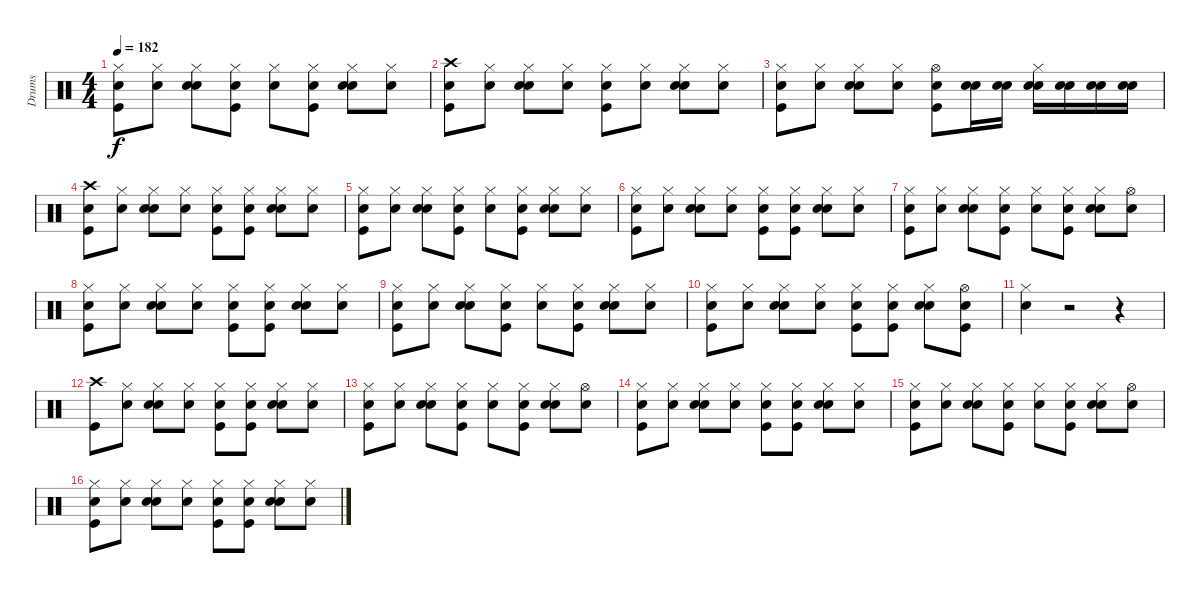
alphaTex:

\track ("Drums" "Drums") {instrument percussion}
\staff {score}
\articulation defaults
\ts (4 4)
\tempo 182
\clef neutral
\ks c
("Snare (hit)" "Kick (hit)" "Hi-Hat (closed)").8{dy f} ("Snare (hit)" "Hi-Hat (closed)").8 ("Snare (hit)" "Electric Snare (hit)" "Hi-Hat (closed)").8 ("Snare (hit)" "Kick (hit)" "Hi-Hat (closed)").8 ("Snare (hit)" "Hi-Hat (closed)").8 ("Snare (hit)" "Kick (hit)" "Hi-Hat (closed)").8 ("Snare (hit)" "Electric Snare (hit)" "Hi-Hat (closed)").8 ("Snare (hit)" "Hi-Hat (closed)").8 |
("Snare (hit)" "Crash high (hit)" "Kick (hit)").8 ("Snare (hit)" "Hi-Hat (closed)").8 ("Snare (hit)" "Electric Snare (hit)" "Hi-Hat (closed)").8 ("Snare (hit)" "Hi-Hat (closed)").8 ("Snare (hit)" "Kick (hit)" "Hi-Hat (closed)").8 ("Snare (hit)" "Hi-Hat (closed)").8 ("Snare (hit)" "Electric Snare (hit)" "Hi-Hat (closed)").8 ("Snare (hit)" "Hi-Hat (closed)").8 |
("Snare (hit)" "Kick (hit)" "Hi-Hat (closed)").8 ("Snare (hit)" "Hi-Hat (closed)").8 ("Snare (hit)" "Electric Snare (hit)" "Hi-Hat (closed)").8 ("Snare (hit)" "Hi-Hat (closed)").8 ("Snare (hit)" "Kick (hit)" "Hi-Hat (open)").8 ("Snare (hit)" "Electric Snare (hit)").16 ("Snare (hit)" "Electric Snare (hit)").16 ("Snare (hit)" "Electric Snare (hit)" "Hi-Hat (closed)").16 ("Snare (hit)" "Electric Snare (hit)").16 ("Snare (hit)" "Electric Snare (hit)").16 ("Snare (hit)" "Electric Snare (hit)").16 |
("Snare (hit)" "Kick (hit)" "Crash high (hit)").8 ("Snare (hit)" "Hi-Hat (closed)").8 ("Snare (hit)" "Electric Snare (hit)" "Hi-Hat (closed)").8 ("Snare (hit)" "Hi-Hat (closed)").8 ("Snare (hit)" "Kick (hit)" "Hi-Hat (closed)").8 ("Snare (hit)" "Kick (hit)" "Hi-Hat (closed)").8 ("Snare (hit)" "Electric Snare (hit)" "Hi-Hat (closed)").8 ("Snare (hit)" "Hi-Hat (closed)").8 |
("Snare (hit)" "Kick (hit)" "Hi-Hat (closed)").8 ("Snare (hit)" "Hi-Hat (closed)").8 ("Snare (hit)" "Electric Snare (hit)" "Hi-Hat (closed)").8 ("Snare (hit)" "Kick (hit)" "Hi-Hat (closed)").8 ("Snare (hit)" "Hi-Hat (closed)").8 ("Snare (hit)" "Kick (hit)" "Hi-Hat (closed)").8 ("Snare (hit)" "Electric Snare (hit)" "Hi-Hat (closed)").8 ("Snare (hit)" "Hi-Hat (closed)").8 |
("Snare (hit)" "Kick (hit)" "Hi-Hat (closed)").8 ("Snare (hit)" "Hi-Hat (closed)").8 ("Snare (hit)" "Electric Snare (hit)" "Hi-Hat (closed)").8 ("Snare (hit)" "Hi-Hat (closed)").8 ("Snare (hit)" "Kick (hit)" "Hi-Hat (closed)").8 ("Snare (hit)" "Kick (hit)" "Hi-Hat (closed)").8 ("Snare (hit)" "Electric Snare (hit)" "Hi-Hat (closed)").8 ("Snare (hit)" "Hi-Hat (closed)").8 |
("Snare (hit)" "Kick (hit)" "Hi-Hat (closed)").8 ("Snare (hit)" "Hi-Hat (closed)").8 ("Snare (hit)" "Electric Snare (hit)" "Hi-Hat (closed)").8 ("Snare (hit)" "Kick (hit)" "Hi-Hat (closed)").8 ("Snare (hit)" "Hi-Hat (closed)").8 ("Snare (hit)" "Kick (hit)" "Hi-Hat (closed)").8 ("Snare (hit)" "Electric Snare (hit)" "Hi-Hat (closed)").8 ("Snare (hit)" "Hi-Hat (open)").8 |
("Snare (hit)" "Kick (hit)" "Hi-Hat (closed)").8 ("Snare (hit)" "Hi-Hat (closed)").8 ("Snare (hit)" "Electric Snare (hit)" "Hi-Hat (closed)").8 ("Snare (hit)" "Hi-Hat (closed)").8 ("Snare (hit)" "Kick (hit)" "Hi-Hat (closed)").8 ("Snare (hit)" "Kick (hit)" "Hi-Hat (closed)").8 ("Snare (hit)" "Electric Snare (hit)" "Hi-Hat (closed)").8 ("Snare (hit)" "Hi-Hat (closed)").8 |
("Snare (hit)" "Kick (hit)" "Hi-Hat (closed)").8 ("Snare (hit)" "Hi-Hat (closed)").8 ("Snare (hit)" "Electric Snare (hit)" "Hi-Hat (closed)").8 ("Snare (hit)" "Kick (hit)" "Hi-Hat (closed)").8 ("Snare (hit)" "Hi-Hat (closed)").8 ("Snare (hit)" "Kick (hit)" "Hi-Hat (closed)").8 ("Snare (hit)" "Electric Snare (hit)" "Hi-Hat (closed)").8 ("Snare (hit)" "Hi-Hat (closed)").8 |
("Snare (hit)" "Kick (hit)" "Hi-Hat (closed)").8 ("Snare (hit)" "Hi-Hat (closed)").8 ("Snare (hit)" "Electric Snare (hit)" "Hi-Hat (closed)").8 ("Snare (hit)" "Hi-Hat (closed)").8 ("Snare (hit)" "Kick (hit)" "Hi-Hat (closed)").8 ("Snare (hit)" "Kick (hit)" "Hi-Hat (closed)").8 ("Snare (hit)" "Electric Snare (hit)" "Hi-Hat (closed)").8 ("Snare (hit)" "Kick (hit)" "Hi-Hat (open)").8 |
("Snare (hit)" "Hi-Hat (closed)").4 r.2 r.4 |
("Kick (hit)" "Crash high (hit)").8 ("Snare (hit)" "Hi-Hat (closed)").8 ("Snare (hit)" "Electric Snare (hit)" "Hi-Hat (closed)").8 ("Snare (hit)" "Hi-Hat (closed)").8 ("Snare (hit)" "Kick (hit)" "Hi-Hat (closed)").8 ("Snare (hit)" "Kick (hit)" "Hi-Hat (closed)").8 ("Snare (hit)" "Electric Snare (hit)" "Hi-Hat (closed)").8 ("Snare (hit)" "Hi-Hat (closed)").8 |
("Snare (hit)" "Kick (hit)" "Hi-Hat (closed)").8 ("Snare (hit)" "Hi-Hat (closed)").8 ("Snare (hit)" "Electric Snare (hit)" "Hi-Hat (closed)").8 ("Snare (hit)" "Kick (hit)" "Hi-Hat (closed)").8 ("Snare (hit)" "Hi-Hat (closed)").8 ("Snare (hit)" "Kick (hit)" "Hi-Hat (closed)").8 ("Snare (hit)" "Electric Snare (hit)" "Hi-Hat (closed)").8 ("Snare (hit)" "Hi-Hat (open)").8 |
("Snare (hit)" "Kick (hit)" "Hi-Hat (closed)").8 ("Snare (hit)" "Hi-Hat (closed)").8 ("Snare (hit)" "Electric Snare (hit)" "Hi-Hat (closed)").8 ("Snare (hit)" "Hi-Hat (closed)").8 ("Snare (hit)" "Kick (hit)" "Hi-Hat (closed)").8 ("Snare (hit)" "Kick (hit)" "Hi-Hat (closed)").8 ("Snare (hit)" "Electric Snare (hit)" "Hi-Hat (closed)").8 ("Snare (hit)" "Hi-Hat (closed)").8 |
("Snare (hit)" "Kick (hit)" "Hi-Hat (closed)").8 ("Snare (hit)" "Hi-Hat (closed)").8 ("Snare (hit)" "Electric Snare (hit)" "Hi-Hat (closed)").8 ("Snare (hit)" "Kick (hit)" "Hi-Hat (closed)").8 ("Snare (hit)" "Hi-Hat (closed)").8 ("Snare (hit)" "Kick (hit)" "Hi-Hat (closed)").8 ("Snare (hit)" "Electric Snare (hit)" "Hi-Hat (closed)").8 ("Snare (hit)" "Hi-Hat (open)").8 |
("Snare (hit)" "Kick (hit)" "Hi-Hat (closed)").8 ("Snare (hit)" "Hi-Hat (closed)").8 ("Snare (hit)" "Electric Snare (hit)" "Hi-Hat (closed)").8 ("Snare (hit)" "Hi-Hat (closed)").8 ("Snare (hit)" "Kick (hit)" "Hi-Hat (closed)").8 ("Snare (hit)" "Kick (hit)" "Hi-Hat (closed)").8 ("Snare (hit)" "Electric Snare (hit)" "Hi-Hat (closed)").8 ("Snare (hit)" "Hi-Hat (closed)").8
